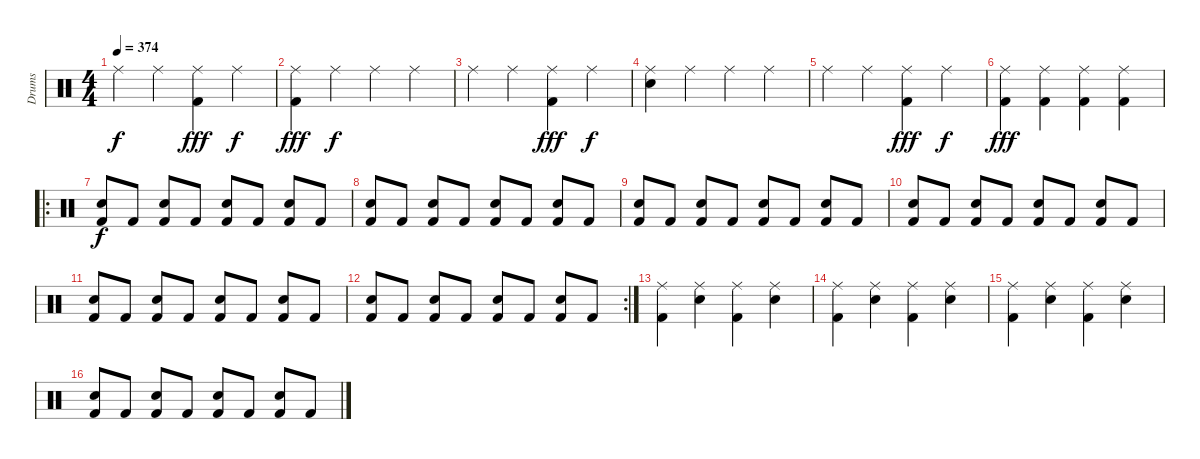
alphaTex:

\track ("Drums" "Drums") {instrument percussion}
\staff {score}
\articulation defaults
\ts (4 4)
\tempo 374
\clef neutral
\ks c "Ride (middle)".4{dy f} "Ride (middle)".4
("Ride (middle)" "Kick (hit) 2").4{dy fff} "Ride (middle)".4{dy f} |
("Ride (middle)" "Kick (hit) 2").4{dy fff} "Ride (middle)".4{dy f} "Ride (middle)".4 "Ride (middle)".4 |
"Ride (middle)".4 "Ride (middle)".4 ("Ride (middle)" "Kick (hit) 2").4{dy fff} "Ride (middle)".4{dy f} |
("Ride (middle)" "Snare (hit) 2").4 "Ride (middle)".4 "Ride (middle)".4 "Ride (middle)".4 |
"Ride (middle)".4 "Ride (middle)".4 ("Ride (middle)" "Kick (hit) 2").4{dy fff} "Ride (middle)".4{dy f} |
("Ride (middle)" "Kick (hit) 2").4{dy fff} ("Ride (middle)" "Kick (hit) 2").4 ("Ride (middle)" "Kick (hit) 2").4 ("Ride (middle)" "Kick (hit) 2").4 |
\ro
("Snare (hit) 2" "Kick (hit) 2").8{dy f} "Kick (hit) 2".8 ("Snare (hit) 2" "Kick (hit) 2").8 "Kick (hit) 2".8 ("Snare (hit) 2" "Kick (hit) 2").8 "Kick (hit) 2".8 ("Snare (hit) 2" "Kick (hit) 2").8 "Kick (hit) 2".8 |
("Snare (hit) 2" "Kick (hit) 2").8 "Kick (hit) 2".8 ("Snare (hit) 2" "Kick (hit) 2").8 "Kick (hit) 2".8 ("Snare (hit) 2" "Kick (hit) 2").8 "Kick (hit) 2".8 ("Snare (hit) 2" "Kick (hit) 2").8 "Kick (hit) 2".8 |
("Snare (hit) 2" "Kick (hit) 2").8 "Kick (hit) 2".8 ("Snare (hit) 2" "Kick (hit) 2").8 "Kick (hit) 2".8 ("Snare (hit) 2" "Kick (hit) 2").8 "Kick (hit) 2".8 ("Snare (hit) 2" "Kick (hit) 2").8 "Kick (hit) 2".8 |
("Snare (hit) 2" "Kick (hit) 2").8 "Kick (hit) 2".8 ("Snare (hit) 2" "Kick (hit) 2").8 "Kick (hit) 2".8 ("Snare (hit) 2" "Kick (hit) 2").8 "Kick (hit) 2".8 ("Snare (hit) 2" "Kick (hit) 2").8 "Kick (hit) 2".8 |
("Snare (hit) 2" "Kick (hit) 2").8 "Kick (hit) 2".8 ("Snare (hit) 2" "Kick (hit) 2").8 "Kick (hit) 2".8 ("Snare (hit) 2" "Kick (hit) 2").8 "Kick (hit) 2".8 ("Snare (hit) 2" "Kick (hit) 2").8 "Kick (hit) 2".8 |
\rc 2
("Snare (hit) 2" "Kick (hit) 2").8 "Kick (hit) 2".8 ("Snare (hit) 2" "Kick (hit) 2").8 "Kick (hit) 2".8 ("Snare (hit) 2" "Kick (hit) 2").8 "Kick (hit) 2".8 ("Snare (hit) 2" "Kick (hit) 2").8 "Kick (hit) 2".8 |
("Ride (middle)" "Kick (hit) 2").4 ("Ride (middle)" "Snare (hit) 2").4 ("Ride (middle)" "Kick (hit) 2").4 ("Ride (middle)" "Snare (hit) 2").4 |
("Ride (middle)" "Kick (hit) 2").4 ("Ride (middle)" "Snare (hit) 2").4 ("Ride (middle)" "Kick (hit) 2").4 ("Ride (middle)" "Snare (hit) 2").4 |
("Ride (middle)" "Kick (hit) 2").4 ("Ride (middle)" "Snare (hit) 2").4 ("Ride (middle)" "Kick (hit) 2").4 ("Ride (middle)" "Snare (hit) 2").4 |
("Snare (hit) 2" "Kick (hit) 2").8 "Kick (hit) 2".8 ("Snare (hit) 2" "Kick (hit) 2").8 "Kick (hit) 2".8 ("Snare (hit) 2" "Kick (hit) 2").8 "Kick (hit) 2".8 ("Snare (hit) 2" "Kick (hit) 2").8 "Kick (hit) 2".8
